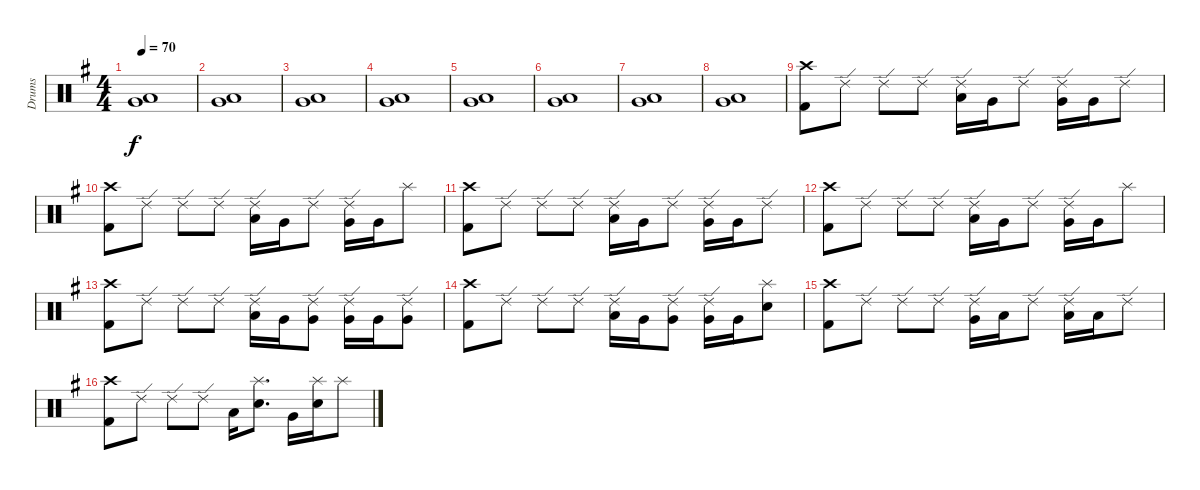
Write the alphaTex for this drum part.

\track ("Drums" "Drums") {instrument percussion}
\staff {score}
\articulation defaults
\ts (4 4)
\tempo 70
\clef neutral
\ks g
("Very Low Tom (hit)" "Low Floor Tom (hit)").1{dy f} |
("Very Low Tom (hit)" "Low Floor Tom (hit)").1 |
("Very Low Tom (hit)" "Low Floor Tom (hit)").1 |
("Very Low Tom (hit)" "Low Floor Tom (hit)").1 |
("Very Low Tom (hit)" "Low Floor Tom (hit)").1 |
("Very Low Tom (hit)" "Low Floor Tom (hit)").1 |
("Very Low Tom (hit)" "Low Floor Tom (hit)").1 |
("Very Low Tom (hit)" "Low Floor Tom (hit)").1 |
("Crash high (hit)" "Kick (hit) 2").8 "Ride (edge) 2".8 "Ride (edge) 2".8 "Ride (edge) 2".8 ("Ride (edge) 2" "Low Tom (hit)").16 "Very Low Tom (hit)".16 "Ride (edge) 2".8 ("Ride (edge) 2" "Very Low Tom (hit)").16 "Very Low Tom (hit)".16 "Ride (edge) 2".8 |
("Crash high (hit)" "Kick (hit) 2").8 "Ride (edge) 2".8 "Ride (edge) 2".8 "Ride (edge) 2".8 ("Ride (edge) 2" "Low Tom (hit)").16 "Very Low Tom (hit)".16 "Ride (edge) 2".8 ("Ride (edge) 2" "Very Low Tom (hit)").16 "Very Low Tom (hit)".16 "Splash (hit)".8 |
("Crash high (hit)" "Kick (hit) 2").8 "Ride (edge) 2".8 "Ride (edge) 2".8 "Ride (edge) 2".8 ("Ride (edge) 2" "Low Tom (hit)").16 "Very Low Tom (hit)".16 "Ride (edge) 2".8 ("Ride (edge) 2" "Very Low Tom (hit)").16 "Very Low Tom (hit)".16 "Ride (edge) 2".8 |
("Crash high (hit)" "Kick (hit) 2").8 "Ride (edge) 2".8 "Ride (edge) 2".8 "Ride (edge) 2".8 ("Ride (edge) 2" "Low Tom (hit)").16 "Very Low Tom (hit)".16 "Ride (edge) 2".8 ("Ride (edge) 2" "Very Low Tom (hit)").16 "Very Low Tom (hit)".16 "Splash (hit)".8 |
("Crash high (hit)" "Kick (hit) 2").8 "Ride (edge) 2".8 "Ride (edge) 2".8 "Ride (edge) 2".8 ("Ride (edge) 2" "Low Tom (hit)").16 "Very Low Tom (hit)".16 ("Ride (edge) 2" "Very Low Tom (hit)").8 ("Ride (edge) 2" "Very Low Tom (hit)").16 "Very Low Tom (hit)".16 ("Ride (edge) 2" "Very Low Tom (hit)").8 |
("Crash high (hit)" "Kick (hit) 2").8 "Ride (edge) 2".8 "Ride (edge) 2".8 "Ride (edge) 2".8 ("Ride (edge) 2" "Low Floor Tom (hit)").16 "Very Low Tom (hit)".16 ("Ride (edge) 2" "Very Low Tom (hit)").8 ("Ride (edge) 2" "Very Low Tom (hit)").16 "Very Low Tom (hit)".16 ("Splash (hit)" "Electric Snare (hit)").8 |
("Crash high (hit)" "Kick (hit) 2").8 "Ride (edge) 2".8 "Ride (edge) 2".8 "Ride (edge) 2".8 ("Ride (edge) 2" "Very Low Tom (hit)").16 "Low Tom (hit)".16 "Ride (edge) 2".8 ("Ride (edge) 2" "Low Tom (hit)").16 "Low Tom (hit)".16 "Ride (edge) 2".8 |
("Crash high (hit)" "Kick (hit) 2").8 "Ride (edge) 2".8 "Ride (edge) 2".8 "Ride (edge) 2".8 "Low Tom (hit)".16 ("Splash (hit)" "Electric Snare (hit)").8{d} "Very Low Tom (hit)".16 ("Splash (hit)" "Electric Snare (hit)").16 "Splash (hit)".8
